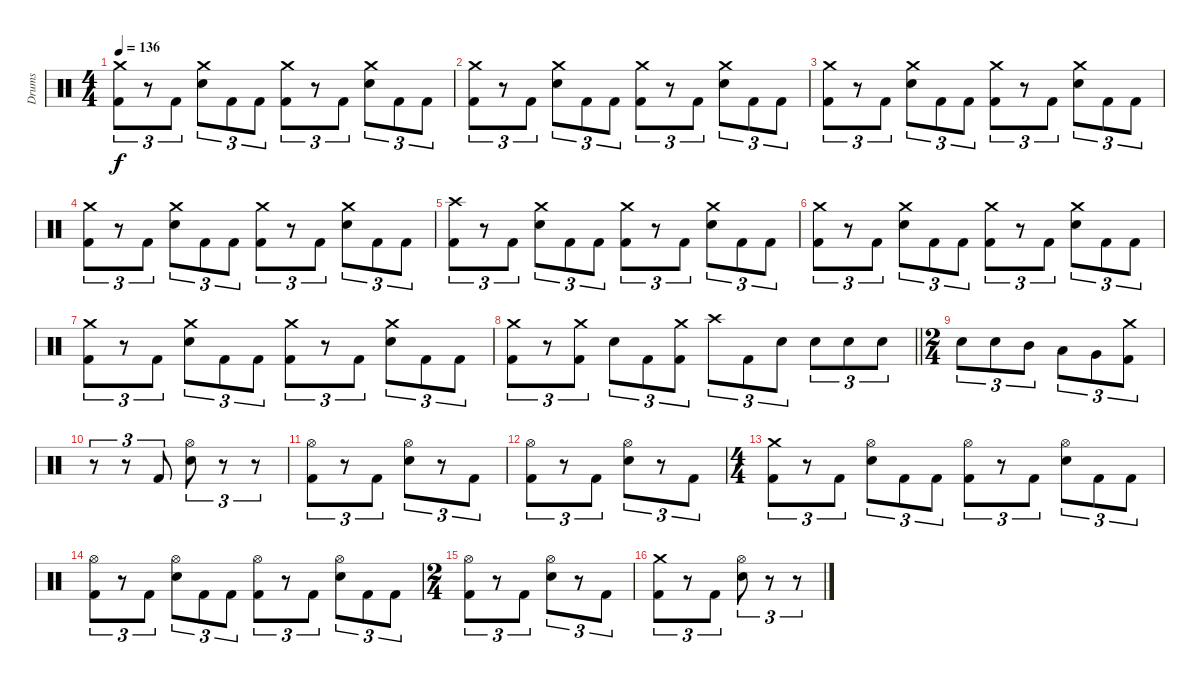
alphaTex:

\track ("Drums" "Drums") {instrument percussion}
\staff {score}
\articulation defaults
\ts (4 4)
\tempo 136
\clef neutral
\ks c
("Crash medium (hit)" "Kick (hit) 2").8{tu (3 2) dy f} r.8{tu (3 2)} "Kick (hit) 2".8{tu (3 2)} ("Crash medium (hit)" "Electric Snare (hit)").8{tu (3 2)} "Kick (hit) 2".8{tu (3 2)} "Kick (hit) 2".8{tu (3 2)} ("Crash medium (hit)" "Kick (hit) 2").8{tu (3 2)} r.8{tu (3 2)} "Kick (hit) 2".8{tu (3 2)} ("Crash medium (hit)" "Electric Snare (hit)").8{tu (3 2)} "Kick (hit) 2".8{tu (3 2)} "Kick (hit) 2".8{tu (3 2)} |
("Crash medium (hit)" "Kick (hit) 2").8{tu (3 2)} r.8{tu (3 2)} "Kick (hit) 2".8{tu (3 2)} ("Crash medium (hit)" "Electric Snare (hit)").8{tu (3 2)} "Kick (hit) 2".8{tu (3 2)} "Kick (hit) 2".8{tu (3 2)} ("Crash medium (hit)" "Kick (hit) 2").8{tu (3 2)} r.8{tu (3 2)} "Kick (hit) 2".8{tu (3 2)} ("Crash medium (hit)" "Electric Snare (hit)").8{tu (3 2)} "Kick (hit) 2".8{tu (3 2)} "Kick (hit) 2".8{tu (3 2)} |
("Crash medium (hit)" "Kick (hit) 2").8{tu (3 2)} r.8{tu (3 2)} "Kick (hit) 2".8{tu (3 2)} ("Crash medium (hit)" "Electric Snare (hit)").8{tu (3 2)} "Kick (hit) 2".8{tu (3 2)} "Kick (hit) 2".8{tu (3 2)} ("Crash medium (hit)" "Kick (hit) 2").8{tu (3 2)} r.8{tu (3 2)} "Kick (hit) 2".8{tu (3 2)} ("Crash medium (hit)" "Electric Snare (hit)").8{tu (3 2)} "Kick (hit) 2".8{tu (3 2)} "Kick (hit) 2".8{tu (3 2)} |
("Crash medium (hit)" "Kick (hit) 2").8{tu (3 2)} r.8{tu (3 2)} "Kick (hit) 2".8{tu (3 2)} ("Crash medium (hit)" "Electric Snare (hit)").8{tu (3 2)} "Kick (hit) 2".8{tu (3 2)} "Kick (hit) 2".8{tu (3 2)} ("Crash medium (hit)" "Kick (hit) 2").8{tu (3 2)} r.8{tu (3 2)} "Kick (hit) 2".8{tu (3 2)} ("Crash medium (hit)" "Electric Snare (hit)").8{tu (3 2)} "Kick (hit) 2".8{tu (3 2)} "Kick (hit) 2".8{tu (3 2)} |
("Crash high (hit)" "Kick (hit) 2").8{tu (3 2)} r.8{tu (3 2)} "Kick (hit) 2".8{tu (3 2)} ("Crash medium (hit)" "Electric Snare (hit)").8{tu (3 2)} "Kick (hit) 2".8{tu (3 2)} "Kick (hit) 2".8{tu (3 2)} ("Crash medium (hit)" "Kick (hit) 2").8{tu (3 2)} r.8{tu (3 2)} "Kick (hit) 2".8{tu (3 2)} ("Crash medium (hit)" "Electric Snare (hit)").8{tu (3 2)} "Kick (hit) 2".8{tu (3 2)} "Kick (hit) 2".8{tu (3 2)} |
("Crash medium (hit)" "Kick (hit) 2").8{tu (3 2)} r.8{tu (3 2)} "Kick (hit) 2".8{tu (3 2)} ("Crash medium (hit)" "Electric Snare (hit)").8{tu (3 2)} "Kick (hit) 2".8{tu (3 2)} "Kick (hit) 2".8{tu (3 2)} ("Crash medium (hit)" "Kick (hit) 2").8{tu (3 2)} r.8{tu (3 2)} "Kick (hit) 2".8{tu (3 2)} ("Crash medium (hit)" "Electric Snare (hit)").8{tu (3 2)} "Kick (hit) 2".8{tu (3 2)} "Kick (hit) 2".8{tu (3 2)} |
("Crash medium (hit)" "Kick (hit) 2").8{tu (3 2)} r.8{tu (3 2)} "Kick (hit) 2".8{tu (3 2)} ("Crash medium (hit)" "Electric Snare (hit)").8{tu (3 2)} "Kick (hit) 2".8{tu (3 2)} "Kick (hit) 2".8{tu (3 2)} ("Crash medium (hit)" "Kick (hit) 2").8{tu (3 2)} r.8{tu (3 2)} "Kick (hit) 2".8{tu (3 2)} ("Crash medium (hit)" "Electric Snare (hit)").8{tu (3 2)} "Kick (hit) 2".8{tu (3 2)} "Kick (hit) 2".8{tu (3 2)} |
\barLineRight lightlight
("Crash medium (hit)" "Kick (hit) 2").8{tu (3 2)} r.8{tu (3 2)} ("Crash medium (hit)" "Kick (hit) 2").8{tu (3 2)} "Electric Snare (hit)".8{tu (3 2)} "Kick (hit) 2".8{tu (3 2)} ("Crash medium (hit)" "Kick (hit) 2").8{tu (3 2)} "Crash high (hit)".8{tu (3 2)} "Kick (hit) 2".8{tu (3 2)} "Electric Snare (hit)".8{tu (3 2)} "Electric Snare (hit)".8{tu (3 2)} "Electric Snare (hit)".8{tu (3 2)} "Electric Snare (hit)".8{tu (3 2)} |
\ts (2 4)
"Electric Snare (hit)".8{tu (3 2)} "Electric Snare (hit)".8{tu (3 2)} "Mid Tom (hit)".8{tu (3 2)} "Low Tom (hit)".8{tu (3 2)} "Very Low Tom (hit)".8{tu (3 2)} ("Crash medium (hit)" "Kick (hit) 2").8{tu (3 2)} |
r.8{tu (3 2)} r.8{tu (3 2)} "Kick (hit) 2".8{tu (3 2)} ("Hi-Hat (open)" "Electric Snare (hit)").8{tu (3 2)} r.8{tu (3 2)} r.8{tu (3 2)} |
("Hi-Hat (open)" "Kick (hit) 2").8{tu (3 2)} r.8{tu (3 2)} "Kick (hit) 2".8{tu (3 2)} ("Hi-Hat (open)" "Electric Snare (hit)").8{tu (3 2)} r.8{tu (3 2)} "Kick (hit) 2".8{tu (3 2)} |
("Hi-Hat (open)" "Kick (hit) 2").8{tu (3 2)} r.8{tu (3 2)} "Kick (hit) 2".8{tu (3 2)} ("Hi-Hat (open)" "Electric Snare (hit)").8{tu (3 2)} r.8{tu (3 2)} "Kick (hit) 2".8{tu (3 2)} |
\ts (4 4)
("Crash medium (hit)" "Kick (hit) 2").8{tu (3 2)} r.8{tu (3 2)} "Kick (hit) 2".8{tu (3 2)} ("Hi-Hat (open)" "Electric Snare (hit)").8{tu (3 2)} "Kick (hit) 2".8{tu (3 2)} "Kick (hit) 2".8{tu (3 2)} ("Hi-Hat (open)" "Kick (hit) 2").8{tu (3 2)} r.8{tu (3 2)} "Kick (hit) 2".8{tu (3 2)} ("Hi-Hat (open)" "Electric Snare (hit)").8{tu (3 2)} "Kick (hit) 2".8{tu (3 2)} "Kick (hit) 2".8{tu (3 2)} |
("Hi-Hat (open)" "Kick (hit) 2").8{tu (3 2)} r.8{tu (3 2)} "Kick (hit) 2".8{tu (3 2)} ("Hi-Hat (open)" "Electric Snare (hit)").8{tu (3 2)} "Kick (hit) 2".8{tu (3 2)} "Kick (hit) 2".8{tu (3 2)} ("Hi-Hat (open)" "Kick (hit) 2").8{tu (3 2)} r.8{tu (3 2)} "Kick (hit) 2".8{tu (3 2)} ("Hi-Hat (open)" "Electric Snare (hit)").8{tu (3 2)} "Kick (hit) 2".8{tu (3 2)} "Kick (hit) 2".8{tu (3 2)} |
\ts (2 4)
("Hi-Hat (open)" "Kick (hit) 2").8{tu (3 2)} r.8{tu (3 2)} "Kick (hit) 2".8{tu (3 2)} ("Hi-Hat (open)" "Electric Snare (hit)").8{tu (3 2)} r.8{tu (3 2)} "Kick (hit) 2".8{tu (3 2)} |
("Crash medium (hit)" "Kick (hit) 2").8{tu (3 2)} r.8{tu (3 2)} "Kick (hit) 2".8{tu (3 2)} ("Hi-Hat (open)" "Electric Snare (hit)").8{tu (3 2)} r.8{tu (3 2)} r.8{tu (3 2)}
